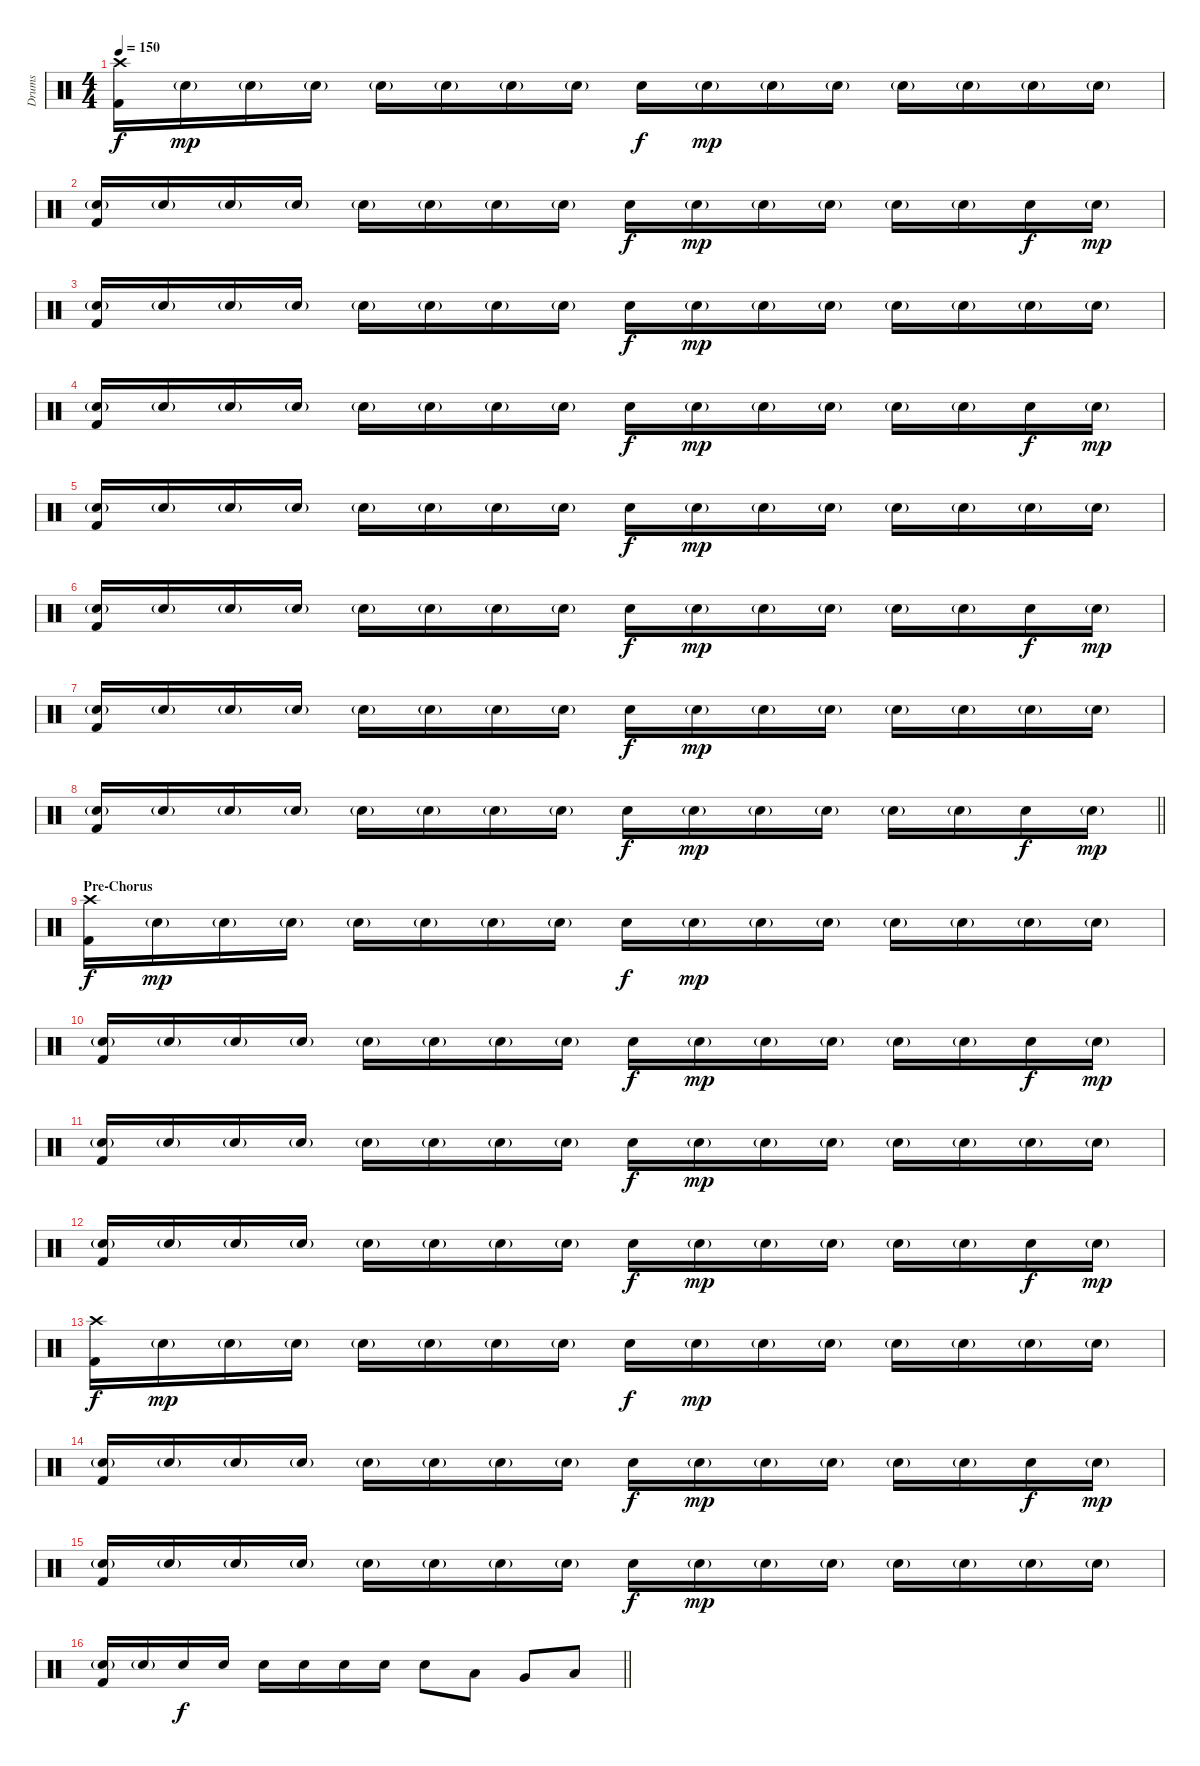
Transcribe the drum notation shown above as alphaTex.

\track ("Drums" "Drums") {instrument percussion}
\staff {score}
\articulation defaults
\ts (4 4)
\tempo 150
\clef neutral
\ks c
("Kick (hit) 2" "Crash high (hit)").16{dy f} "Electric Snare (hit)"{g}.16{dy mp} "Electric Snare (hit)"{g}.16 "Electric Snare (hit)"{g}.16 "Electric Snare (hit)"{g}.16 "Electric Snare (hit)"{g}.16 "Electric Snare (hit)"{g}.16 "Electric Snare (hit)"{g}.16 "Electric Snare (hit)".16{dy f} "Electric Snare (hit)"{g}.16{dy mp} "Electric Snare (hit)"{g}.16 "Electric Snare (hit)"{g}.16 "Electric Snare (hit)"{g}.16 "Electric Snare (hit)"{g}.16 "Electric Snare (hit)"{g}.16 "Electric Snare (hit)"{g}.16 |
("Kick (hit) 2" "Electric Snare (hit)"{g}).16 "Electric Snare (hit)"{g}.16 "Electric Snare (hit)"{g}.16 "Electric Snare (hit)"{g}.16 "Electric Snare (hit)"{g}.16 "Electric Snare (hit)"{g}.16 "Electric Snare (hit)"{g}.16 "Electric Snare (hit)"{g}.16 "Electric Snare (hit)".16{dy f} "Electric Snare (hit)"{g}.16{dy mp} "Electric Snare (hit)"{g}.16 "Electric Snare (hit)"{g}.16 "Electric Snare (hit)"{g}.16 "Electric Snare (hit)"{g}.16 "Electric Snare (hit)".16{dy f} "Electric Snare (hit)"{g}.16{dy mp} |
("Kick (hit) 2" "Electric Snare (hit)"{g}).16 "Electric Snare (hit)"{g}.16 "Electric Snare (hit)"{g}.16 "Electric Snare (hit)"{g}.16 "Electric Snare (hit)"{g}.16 "Electric Snare (hit)"{g}.16 "Electric Snare (hit)"{g}.16 "Electric Snare (hit)"{g}.16 "Electric Snare (hit)".16{dy f} "Electric Snare (hit)"{g}.16{dy mp} "Electric Snare (hit)"{g}.16 "Electric Snare (hit)"{g}.16 "Electric Snare (hit)"{g}.16 "Electric Snare (hit)"{g}.16 "Electric Snare (hit)"{g}.16 "Electric Snare (hit)"{g}.16 |
("Kick (hit) 2" "Electric Snare (hit)"{g}).16 "Electric Snare (hit)"{g}.16 "Electric Snare (hit)"{g}.16 "Electric Snare (hit)"{g}.16 "Electric Snare (hit)"{g}.16 "Electric Snare (hit)"{g}.16 "Electric Snare (hit)"{g}.16 "Electric Snare (hit)"{g}.16 "Electric Snare (hit)".16{dy f} "Electric Snare (hit)"{g}.16{dy mp} "Electric Snare (hit)"{g}.16 "Electric Snare (hit)"{g}.16 "Electric Snare (hit)"{g}.16 "Electric Snare (hit)"{g}.16 "Electric Snare (hit)".16{dy f} "Electric Snare (hit)"{g}.16{dy mp} |
("Kick (hit) 2" "Electric Snare (hit)"{g}).16 "Electric Snare (hit)"{g}.16 "Electric Snare (hit)"{g}.16 "Electric Snare (hit)"{g}.16 "Electric Snare (hit)"{g}.16 "Electric Snare (hit)"{g}.16 "Electric Snare (hit)"{g}.16 "Electric Snare (hit)"{g}.16 "Electric Snare (hit)".16{dy f} "Electric Snare (hit)"{g}.16{dy mp} "Electric Snare (hit)"{g}.16 "Electric Snare (hit)"{g}.16 "Electric Snare (hit)"{g}.16 "Electric Snare (hit)"{g}.16 "Electric Snare (hit)"{g}.16 "Electric Snare (hit)"{g}.16 |
("Kick (hit) 2" "Electric Snare (hit)"{g}).16 "Electric Snare (hit)"{g}.16 "Electric Snare (hit)"{g}.16 "Electric Snare (hit)"{g}.16 "Electric Snare (hit)"{g}.16 "Electric Snare (hit)"{g}.16 "Electric Snare (hit)"{g}.16 "Electric Snare (hit)"{g}.16 "Electric Snare (hit)".16{dy f} "Electric Snare (hit)"{g}.16{dy mp} "Electric Snare (hit)"{g}.16 "Electric Snare (hit)"{g}.16 "Electric Snare (hit)"{g}.16 "Electric Snare (hit)"{g}.16 "Electric Snare (hit)".16{dy f} "Electric Snare (hit)"{g}.16{dy mp} |
("Kick (hit) 2" "Electric Snare (hit)"{g}).16 "Electric Snare (hit)"{g}.16 "Electric Snare (hit)"{g}.16 "Electric Snare (hit)"{g}.16 "Electric Snare (hit)"{g}.16 "Electric Snare (hit)"{g}.16 "Electric Snare (hit)"{g}.16 "Electric Snare (hit)"{g}.16 "Electric Snare (hit)".16{dy f} "Electric Snare (hit)"{g}.16{dy mp} "Electric Snare (hit)"{g}.16 "Electric Snare (hit)"{g}.16 "Electric Snare (hit)"{g}.16 "Electric Snare (hit)"{g}.16 "Electric Snare (hit)"{g}.16 "Electric Snare (hit)"{g}.16 |
\barLineRight lightlight
("Kick (hit) 2" "Electric Snare (hit)"{g}).16 "Electric Snare (hit)"{g}.16 "Electric Snare (hit)"{g}.16 "Electric Snare (hit)"{g}.16 "Electric Snare (hit)"{g}.16 "Electric Snare (hit)"{g}.16 "Electric Snare (hit)"{g}.16 "Electric Snare (hit)"{g}.16 "Electric Snare (hit)".16{dy f} "Electric Snare (hit)"{g}.16{dy mp} "Electric Snare (hit)"{g}.16 "Electric Snare (hit)"{g}.16 "Electric Snare (hit)"{g}.16 "Electric Snare (hit)"{g}.16 "Electric Snare (hit)".16{dy f} "Electric Snare (hit)"{g}.16{dy mp} |
\section ("" "Pre-Chorus")
("Kick (hit) 2" "Crash high (hit)").16{dy f} "Electric Snare (hit)"{g}.16{dy mp} "Electric Snare (hit)"{g}.16 "Electric Snare (hit)"{g}.16 "Electric Snare (hit)"{g}.16 "Electric Snare (hit)"{g}.16 "Electric Snare (hit)"{g}.16 "Electric Snare (hit)"{g}.16 "Electric Snare (hit)".16{dy f} "Electric Snare (hit)"{g}.16{dy mp} "Electric Snare (hit)"{g}.16 "Electric Snare (hit)"{g}.16 "Electric Snare (hit)"{g}.16 "Electric Snare (hit)"{g}.16 "Electric Snare (hit)"{g}.16 "Electric Snare (hit)"{g}.16 |
("Kick (hit) 2" "Electric Snare (hit)"{g}).16 "Electric Snare (hit)"{g}.16 "Electric Snare (hit)"{g}.16 "Electric Snare (hit)"{g}.16 "Electric Snare (hit)"{g}.16 "Electric Snare (hit)"{g}.16 "Electric Snare (hit)"{g}.16 "Electric Snare (hit)"{g}.16 "Electric Snare (hit)".16{dy f} "Electric Snare (hit)"{g}.16{dy mp} "Electric Snare (hit)"{g}.16 "Electric Snare (hit)"{g}.16 "Electric Snare (hit)"{g}.16 "Electric Snare (hit)"{g}.16 "Electric Snare (hit)".16{dy f} "Electric Snare (hit)"{g}.16{dy mp} |
("Kick (hit) 2" "Electric Snare (hit)"{g}).16 "Electric Snare (hit)"{g}.16 "Electric Snare (hit)"{g}.16 "Electric Snare (hit)"{g}.16 "Electric Snare (hit)"{g}.16 "Electric Snare (hit)"{g}.16 "Electric Snare (hit)"{g}.16 "Electric Snare (hit)"{g}.16 "Electric Snare (hit)".16{dy f} "Electric Snare (hit)"{g}.16{dy mp} "Electric Snare (hit)"{g}.16 "Electric Snare (hit)"{g}.16 "Electric Snare (hit)"{g}.16 "Electric Snare (hit)"{g}.16 "Electric Snare (hit)"{g}.16 "Electric Snare (hit)"{g}.16 |
("Kick (hit) 2" "Electric Snare (hit)"{g}).16 "Electric Snare (hit)"{g}.16 "Electric Snare (hit)"{g}.16 "Electric Snare (hit)"{g}.16 "Electric Snare (hit)"{g}.16 "Electric Snare (hit)"{g}.16 "Electric Snare (hit)"{g}.16 "Electric Snare (hit)"{g}.16 "Electric Snare (hit)".16{dy f} "Electric Snare (hit)"{g}.16{dy mp} "Electric Snare (hit)"{g}.16 "Electric Snare (hit)"{g}.16 "Electric Snare (hit)"{g}.16 "Electric Snare (hit)"{g}.16 "Electric Snare (hit)".16{dy f} "Electric Snare (hit)"{g}.16{dy mp} |
("Kick (hit) 2" "Crash high (hit)").16{dy f} "Electric Snare (hit)"{g}.16{dy mp} "Electric Snare (hit)"{g}.16 "Electric Snare (hit)"{g}.16 "Electric Snare (hit)"{g}.16 "Electric Snare (hit)"{g}.16 "Electric Snare (hit)"{g}.16 "Electric Snare (hit)"{g}.16 "Electric Snare (hit)".16{dy f} "Electric Snare (hit)"{g}.16{dy mp} "Electric Snare (hit)"{g}.16 "Electric Snare (hit)"{g}.16 "Electric Snare (hit)"{g}.16 "Electric Snare (hit)"{g}.16 "Electric Snare (hit)"{g}.16 "Electric Snare (hit)"{g}.16 |
("Kick (hit) 2" "Electric Snare (hit)"{g}).16 "Electric Snare (hit)"{g}.16 "Electric Snare (hit)"{g}.16 "Electric Snare (hit)"{g}.16 "Electric Snare (hit)"{g}.16 "Electric Snare (hit)"{g}.16 "Electric Snare (hit)"{g}.16 "Electric Snare (hit)"{g}.16 "Electric Snare (hit)".16{dy f} "Electric Snare (hit)"{g}.16{dy mp} "Electric Snare (hit)"{g}.16 "Electric Snare (hit)"{g}.16 "Electric Snare (hit)"{g}.16 "Electric Snare (hit)"{g}.16 "Electric Snare (hit)".16{dy f} "Electric Snare (hit)"{g}.16{dy mp} |
("Kick (hit) 2" "Electric Snare (hit)"{g}).16 "Electric Snare (hit)"{g}.16 "Electric Snare (hit)"{g}.16 "Electric Snare (hit)"{g}.16 "Electric Snare (hit)"{g}.16 "Electric Snare (hit)"{g}.16 "Electric Snare (hit)"{g}.16 "Electric Snare (hit)"{g}.16 "Electric Snare (hit)".16{dy f} "Electric Snare (hit)"{g}.16{dy mp} "Electric Snare (hit)"{g}.16 "Electric Snare (hit)"{g}.16 "Electric Snare (hit)"{g}.16 "Electric Snare (hit)"{g}.16 "Electric Snare (hit)"{g}.16 "Electric Snare (hit)"{g}.16 |
\barLineRight lightlight
("Kick (hit) 2" "Electric Snare (hit)"{g}).16 "Electric Snare (hit)"{g}.16 "Electric Snare (hit)".16{dy f} "Electric Snare (hit)".16 "Electric Snare (hit)".16 "Electric Snare (hit)".16 "Electric Snare (hit)".16 "Electric Snare (hit)".16 "Electric Snare (hit)".8 "Low Tom (hit)".8 "Very Low Tom (hit)".8 "Low Floor Tom (hit)".8
